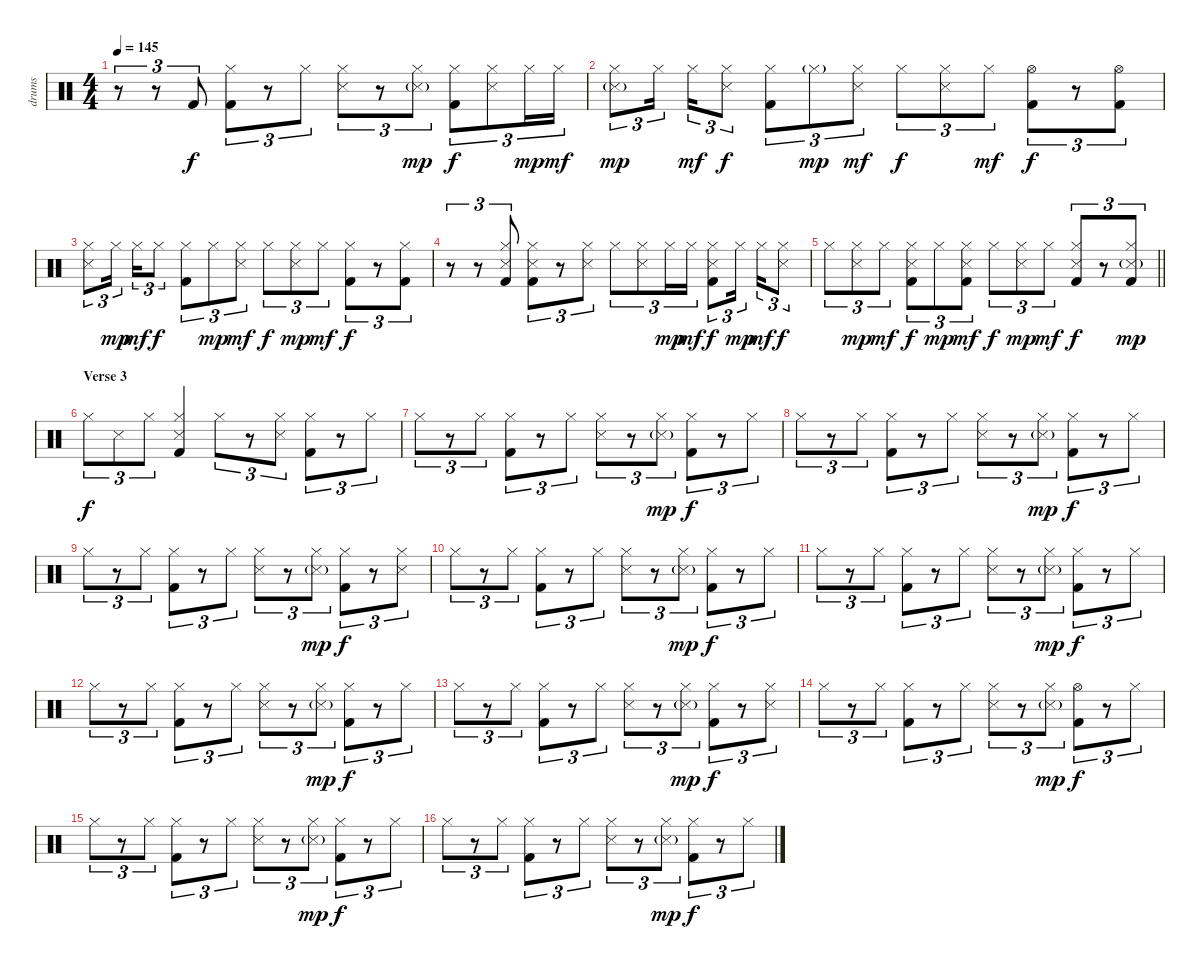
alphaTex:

\track ("drums" "drums") {instrument percussion}
\staff {score}
\articulation defaults
\ts (4 4)
\tempo 145
\clef neutral
\ks c
r.8{tu (3 2) dy mf} r.8{tu (3 2)} "Kick (hit) 2".8{tu (3 2) dy f} ("Hi-Hat (closed)" "Kick (hit) 2").8{tu (3 2)} r.8{tu (3 2)} "Hi-Hat (closed)".8{tu (3 2)} ("Hi-Hat (closed)" "Snare (side stick) 3").8{tu (3 2)} r.8{tu (3 2)} ("Hi-Hat (closed)" "Snare (side stick) 3"{g}).8{tu (3 2) dy mp} ("Hi-Hat (closed)" "Kick (hit) 2").8{tu (3 2) dy f} ("Hi-Hat (closed)" "Snare (side stick) 3").8{tu (3 2)} "Hi-Hat (closed)".16{tu (3 2) dy mp} "Hi-Hat (closed)".16{tu (3 2) dy mf} |
("Hi-Hat (closed)" "Snare (side stick) 3"{g}).8{tu (3 2) dy mp} "Hi-Hat (closed)".16{tu (3 2)} "Hi-Hat (closed)".16{tu (3 2) dy mf} ("Hi-Hat (closed)" "Snare (side stick) 3").8{tu (3 2) dy f} ("Hi-Hat (closed)" "Kick (hit) 2").8{tu (3 2)} "Hi-Hat (closed)"{g}.8{tu (3 2) dy mp} ("Hi-Hat (closed)" "Snare (side stick) 3").8{tu (3 2) dy mf} "Hi-Hat (closed)".8{tu (3 2) dy f} ("Hi-Hat (closed)" "Snare (side stick) 3").8{tu (3 2)} "Hi-Hat (closed)".8{tu (3 2) dy mf} ("Hi-Hat (open)" "Kick (hit) 2").8{tu (3 2) dy f} r.8{tu (3 2)} ("Hi-Hat (open)" "Kick (hit) 2").8{tu (3 2)} |
("Hi-Hat (closed)" "Snare (side stick) 3").8{tu (3 2)} "Hi-Hat (closed)".16{tu (3 2) dy mp} "Hi-Hat (closed)".16{tu (3 2) dy mf} "Hi-Hat (closed)".8{tu (3 2) dy f} ("Hi-Hat (closed)" "Kick (hit) 2").8{tu (3 2)} "Hi-Hat (closed)".8{tu (3 2) dy mp} ("Hi-Hat (closed)" "Snare (side stick) 3").8{tu (3 2) dy mf} "Hi-Hat (closed)".8{tu (3 2) dy f} ("Hi-Hat (closed)" "Snare (side stick) 3").8{tu (3 2) dy mp} "Hi-Hat (closed)".8{tu (3 2) dy mf} ("Hi-Hat (closed)" "Kick (hit) 2").8{tu (3 2) dy f} r.8{tu (3 2)} ("Hi-Hat (closed)" "Kick (hit) 2").8{tu (3 2)} |
r.8{tu (3 2)} r.8{tu (3 2)} ("Hi-Hat (closed)" "Snare (side stick) 3" "Kick (hit) 2").8{tu (3 2)} ("Hi-Hat (closed)" "Snare (side stick) 3" "Kick (hit) 2").8{tu (3 2)} r.8{tu (3 2)} ("Hi-Hat (closed)" "Snare (side stick) 3").8{tu (3 2)} "Hi-Hat (closed)".8{tu (3 2)} ("Hi-Hat (closed)" "Snare (side stick) 3").8{tu (3 2)} "Hi-Hat (closed)".16{tu (3 2) dy mp} "Hi-Hat (closed)".16{tu (3 2) dy mf} ("Hi-Hat (closed)" "Snare (side stick) 3" "Kick (hit) 2").8{tu (3 2) dy f} "Hi-Hat (closed)".16{tu (3 2) dy mp} "Hi-Hat (closed)".16{tu (3 2) dy mf} ("Hi-Hat (closed)" "Snare (side stick) 3").8{tu (3 2) dy f} |
\barLineRight lightlight "Hi-Hat (closed)".8{tu (3 2)}
("Hi-Hat (closed)" "Snare (side stick) 3").8{tu (3 2) dy mp} "Hi-Hat (closed)".8{tu (3 2) dy mf} ("Hi-Hat (closed)" "Snare (side stick) 3" "Kick (hit) 2").8{tu (3 2) dy f} "Hi-Hat (closed)".8{tu (3 2) dy mp} ("Hi-Hat (closed)" "Snare (side stick) 3" "Kick (hit) 2").8{tu (3 2) dy mf} "Hi-Hat (closed)".8{tu (3 2) dy f} ("Hi-Hat (closed)" "Snare (side stick) 3").8{tu (3 2) dy mp} "Hi-Hat (closed)".8{tu (3 2) dy mf} ("Hi-Hat (closed)" "Snare (side stick) 3" "Kick (hit) 2").8{tu (3 2) dy f} r.8{tu (3 2)} ("Hi-Hat (closed)" "Snare (side stick) 3"{g} "Kick (hit) 2").8{tu (3 2) dy mp} |
\section ("" "Verse 3")
"Hi-Hat (closed)".8{tu (3 2) dy f} "Snare (side stick) 3".8{tu (3 2)} "Hi-Hat (closed)".8{tu (3 2)} ("Hi-Hat (closed)" "Snare (side stick) 3" "Kick (hit) 2").4 "Hi-Hat (closed)".8{tu (3 2)} r.8{tu (3 2)} ("Hi-Hat (closed)" "Snare (side stick) 3").8{tu (3 2)} ("Hi-Hat (closed)" "Kick (hit) 2").8{tu (3 2)} r.8{tu (3 2)} "Hi-Hat (closed)".8{tu (3 2)} |
"Hi-Hat (closed)".8{tu (3 2)} r.8{tu (3 2)} "Hi-Hat (closed)".8{tu (3 2)} ("Hi-Hat (closed)" "Kick (hit) 2").8{tu (3 2)} r.8{tu (3 2)} "Hi-Hat (closed)".8{tu (3 2)} ("Hi-Hat (closed)" "Snare (side stick) 3").8{tu (3 2)} r.8{tu (3 2)} ("Hi-Hat (closed)" "Snare (side stick) 3"{g}).8{tu (3 2) dy mp} ("Hi-Hat (closed)" "Kick (hit) 2").8{tu (3 2) dy f} r.8{tu (3 2)} "Hi-Hat (closed)".8{tu (3 2)} |
"Hi-Hat (closed)".8{tu (3 2)} r.8{tu (3 2)} "Hi-Hat (closed)".8{tu (3 2)} ("Hi-Hat (closed)" "Kick (hit) 2").8{tu (3 2)} r.8{tu (3 2)} "Hi-Hat (closed)".8{tu (3 2)} ("Hi-Hat (closed)" "Snare (side stick) 3").8{tu (3 2)} r.8{tu (3 2)} ("Hi-Hat (closed)" "Snare (side stick) 3"{g}).8{tu (3 2) dy mp} ("Hi-Hat (closed)" "Kick (hit) 2").8{tu (3 2) dy f} r.8{tu (3 2)} "Hi-Hat (closed)".8{tu (3 2)} |
"Hi-Hat (closed)".8{tu (3 2)} r.8{tu (3 2)} "Hi-Hat (closed)".8{tu (3 2)} ("Hi-Hat (closed)" "Kick (hit) 2").8{tu (3 2)} r.8{tu (3 2)} "Hi-Hat (closed)".8{tu (3 2)} ("Hi-Hat (closed)" "Snare (side stick) 3").8{tu (3 2)} r.8{tu (3 2)} ("Hi-Hat (closed)" "Snare (side stick) 3"{g}).8{tu (3 2) dy mp} ("Hi-Hat (closed)" "Kick (hit) 2").8{tu (3 2) dy f} r.8{tu (3 2)} ("Hi-Hat (closed)" "Snare (side stick) 3").8{tu (3 2)} |
"Hi-Hat (closed)".8{tu (3 2)} r.8{tu (3 2)} "Hi-Hat (closed)".8{tu (3 2)} ("Hi-Hat (closed)" "Kick (hit) 2").8{tu (3 2)} r.8{tu (3 2)} "Hi-Hat (closed)".8{tu (3 2)} ("Hi-Hat (closed)" "Snare (side stick) 3").8{tu (3 2)} r.8{tu (3 2)} ("Hi-Hat (closed)" "Snare (side stick) 3"{g}).8{tu (3 2) dy mp} ("Hi-Hat (closed)" "Kick (hit) 2").8{tu (3 2) dy f} r.8{tu (3 2)} "Hi-Hat (closed)".8{tu (3 2)} |
"Hi-Hat (closed)".8{tu (3 2)} r.8{tu (3 2)} "Hi-Hat (closed)".8{tu (3 2)} ("Hi-Hat (closed)" "Kick (hit) 2").8{tu (3 2)} r.8{tu (3 2)} "Hi-Hat (closed)".8{tu (3 2)} ("Hi-Hat (closed)" "Snare (side stick) 3").8{tu (3 2)} r.8{tu (3 2)} ("Hi-Hat (closed)" "Snare (side stick) 3"{g}).8{tu (3 2) dy mp} ("Hi-Hat (closed)" "Kick (hit) 2").8{tu (3 2) dy f} r.8{tu (3 2)} "Hi-Hat (closed)".8{tu (3 2)} |
"Hi-Hat (closed)".8{tu (3 2)} r.8{tu (3 2)} "Hi-Hat (closed)".8{tu (3 2)} ("Hi-Hat (closed)" "Kick (hit) 2").8{tu (3 2)} r.8{tu (3 2)} "Hi-Hat (closed)".8{tu (3 2)} ("Hi-Hat (closed)" "Snare (side stick) 3").8{tu (3 2)} r.8{tu (3 2)} ("Hi-Hat (closed)" "Snare (side stick) 3"{g}).8{tu (3 2) dy mp} ("Hi-Hat (closed)" "Kick (hit) 2").8{tu (3 2) dy f} r.8{tu (3 2)} "Hi-Hat (closed)".8{tu (3 2)} |
"Hi-Hat (closed)".8{tu (3 2)} r.8{tu (3 2)} "Hi-Hat (closed)".8{tu (3 2)} ("Hi-Hat (closed)" "Kick (hit) 2").8{tu (3 2)} r.8{tu (3 2)} "Hi-Hat (closed)".8{tu (3 2)} ("Hi-Hat (closed)" "Snare (side stick) 3").8{tu (3 2)} r.8{tu (3 2)} ("Hi-Hat (closed)" "Snare (side stick) 3"{g}).8{tu (3 2) dy mp} ("Hi-Hat (closed)" "Kick (hit) 2").8{tu (3 2) dy f} r.8{tu (3 2)} ("Hi-Hat (closed)" "Snare (side stick) 3").8{tu (3 2)} |
"Hi-Hat (closed)".8{tu (3 2)} r.8{tu (3 2)} "Hi-Hat (closed)".8{tu (3 2)} ("Hi-Hat (closed)" "Kick (hit) 2").8{tu (3 2)} r.8{tu (3 2)} "Hi-Hat (closed)".8{tu (3 2)} ("Hi-Hat (closed)" "Snare (side stick) 3").8{tu (3 2)} r.8{tu (3 2)} ("Hi-Hat (closed)" "Snare (side stick) 3"{g}).8{tu (3 2) dy mp} ("Hi-Hat (open)" "Kick (hit) 2").8{tu (3 2) dy f} r.8{tu (3 2)} "Hi-Hat (closed)".8{tu (3 2)} |
"Hi-Hat (closed)".8{tu (3 2)} r.8{tu (3 2)} "Hi-Hat (closed)".8{tu (3 2)} ("Hi-Hat (closed)" "Kick (hit) 2").8{tu (3 2)} r.8{tu (3 2)} "Hi-Hat (closed)".8{tu (3 2)} ("Hi-Hat (closed)" "Snare (side stick) 3").8{tu (3 2)} r.8{tu (3 2)} ("Hi-Hat (closed)" "Snare (side stick) 3"{g}).8{tu (3 2) dy mp} ("Hi-Hat (closed)" "Kick (hit) 2").8{tu (3 2) dy f} r.8{tu (3 2)} "Hi-Hat (closed)".8{tu (3 2)} |
"Hi-Hat (closed)".8{tu (3 2)} r.8{tu (3 2)} "Hi-Hat (closed)".8{tu (3 2)} ("Hi-Hat (closed)" "Kick (hit) 2").8{tu (3 2)} r.8{tu (3 2)} "Hi-Hat (closed)".8{tu (3 2)} ("Hi-Hat (closed)" "Snare (side stick) 3").8{tu (3 2)} r.8{tu (3 2)} ("Hi-Hat (closed)" "Snare (side stick) 3"{g}).8{tu (3 2) dy mp} ("Hi-Hat (closed)" "Kick (hit) 2").8{tu (3 2) dy f} r.8{tu (3 2)} "Hi-Hat (closed)".8{tu (3 2)}
